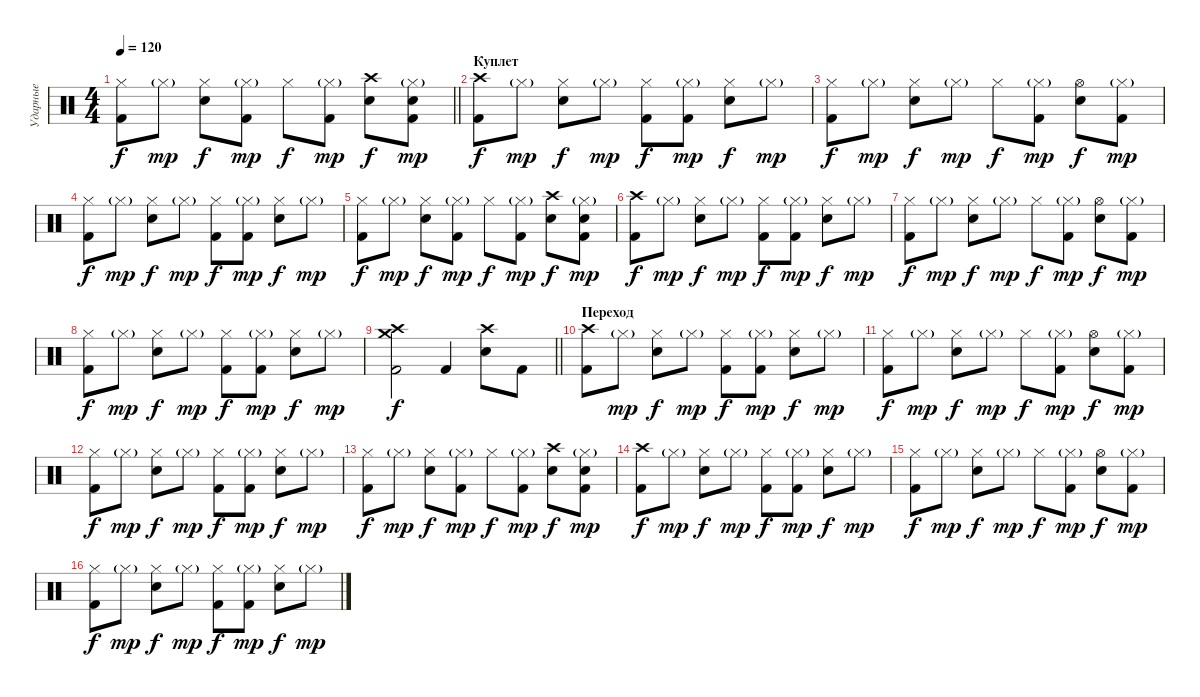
\track ("Ударные" "Ударные") {instrument percussion}
\staff {score}
\articulation defaults
\ts (4 4)
\tempo 120
\clef neutral
\barLineRight lightlight
\ks c
("Hi-Hat (closed)" "Kick (hit) 2").8{dy f} "Hi-Hat (closed)"{g}.8{dy mp} ("Hi-Hat (closed)" "Electric Snare (hit)").8{dy f} ("Hi-Hat (closed)"{g} "Kick (hit) 2").8{dy mp} "Hi-Hat (closed)".8{dy f} ("Hi-Hat (closed)"{g} "Kick (hit) 2").8{dy mp} ("Crash high (hit)" "Electric Snare (hit)").8{dy f} ("Hi-Hat (closed)"{g} "Kick (hit) 2" "Electric Snare (hit)").8{dy mp} |
\section ("" "Куплет")
("Crash high (hit)" "Kick (hit) 2").8{dy f} "Hi-Hat (closed)"{g}.8{dy mp} ("Hi-Hat (closed)" "Electric Snare (hit)").8{dy f} "Hi-Hat (closed)"{g}.8{dy mp} ("Hi-Hat (closed)" "Kick (hit) 2").8{dy f} ("Hi-Hat (closed)"{g} "Kick (hit) 2").8{dy mp} ("Hi-Hat (closed)" "Electric Snare (hit)").8{dy f} "Hi-Hat (closed)"{g}.8{dy mp} |
("Hi-Hat (closed)" "Kick (hit) 2").8{dy f} "Hi-Hat (closed)"{g}.8{dy mp} ("Hi-Hat (closed)" "Electric Snare (hit)").8{dy f} "Hi-Hat (closed)"{g}.8{dy mp} "Hi-Hat (closed)".8{dy f} ("Hi-Hat (closed)"{g} "Kick (hit) 2").8{dy mp} ("Hi-Hat (open)" "Electric Snare (hit)").8{dy f} ("Hi-Hat (closed)"{g} "Kick (hit) 2").8{dy mp} |
("Hi-Hat (closed)" "Kick (hit) 2").8{dy f} "Hi-Hat (closed)"{g}.8{dy mp} ("Hi-Hat (closed)" "Electric Snare (hit)").8{dy f} "Hi-Hat (closed)"{g}.8{dy mp} ("Hi-Hat (closed)" "Kick (hit) 2").8{dy f} ("Hi-Hat (closed)"{g} "Kick (hit) 2").8{dy mp} ("Hi-Hat (closed)" "Electric Snare (hit)").8{dy f} "Hi-Hat (closed)"{g}.8{dy mp} |
("Hi-Hat (closed)" "Kick (hit) 2").8{dy f} "Hi-Hat (closed)"{g}.8{dy mp} ("Hi-Hat (closed)" "Electric Snare (hit)").8{dy f} ("Hi-Hat (closed)"{g} "Kick (hit) 2").8{dy mp} "Hi-Hat (closed)".8{dy f} ("Hi-Hat (closed)"{g} "Kick (hit) 2").8{dy mp} ("Crash high (hit)" "Electric Snare (hit)").8{dy f} ("Hi-Hat (closed)"{g} "Kick (hit) 2" "Electric Snare (hit)").8{dy mp} |
("Crash high (hit)" "Kick (hit) 2").8{dy f} "Hi-Hat (closed)"{g}.8{dy mp} ("Hi-Hat (closed)" "Electric Snare (hit)").8{dy f} "Hi-Hat (closed)"{g}.8{dy mp} ("Hi-Hat (closed)" "Kick (hit) 2").8{dy f} ("Hi-Hat (closed)"{g} "Kick (hit) 2").8{dy mp} ("Hi-Hat (closed)" "Electric Snare (hit)").8{dy f} "Hi-Hat (closed)"{g}.8{dy mp} |
("Hi-Hat (closed)" "Kick (hit) 2").8{dy f} "Hi-Hat (closed)"{g}.8{dy mp} ("Hi-Hat (closed)" "Electric Snare (hit)").8{dy f} "Hi-Hat (closed)"{g}.8{dy mp} "Hi-Hat (closed)".8{dy f} ("Hi-Hat (closed)"{g} "Kick (hit) 2").8{dy mp} ("Hi-Hat (open)" "Electric Snare (hit)").8{dy f} ("Hi-Hat (closed)"{g} "Kick (hit) 2").8{dy mp} |
("Hi-Hat (closed)" "Kick (hit) 2").8{dy f} "Hi-Hat (closed)"{g}.8{dy mp} ("Hi-Hat (closed)" "Electric Snare (hit)").8{dy f} "Hi-Hat (closed)"{g}.8{dy mp} ("Hi-Hat (closed)" "Kick (hit) 2").8{dy f} ("Hi-Hat (closed)"{g} "Kick (hit) 2").8{dy mp} ("Hi-Hat (closed)" "Electric Snare (hit)").8{dy f} "Hi-Hat (closed)"{g}.8{dy mp} |
\barLineRight lightlight
("Kick (hit) 2" "Crash high (hit)" "Crash medium (hit)").2{dy f} "Kick (hit) 2".4 ("Electric Snare (hit)" "Crash high (hit)").8 "Kick (hit) 2".8 |
\section ("" "Переход")
("Crash high (hit)" "Kick (hit) 2").8 "Hi-Hat (closed)"{g}.8{dy mp} ("Hi-Hat (closed)" "Electric Snare (hit)").8{dy f} "Hi-Hat (closed)"{g}.8{dy mp} ("Hi-Hat (closed)" "Kick (hit) 2").8{dy f} ("Hi-Hat (closed)"{g} "Kick (hit) 2").8{dy mp} ("Hi-Hat (closed)" "Electric Snare (hit)").8{dy f} "Hi-Hat (closed)"{g}.8{dy mp} |
("Hi-Hat (closed)" "Kick (hit) 2").8{dy f} "Hi-Hat (closed)"{g}.8{dy mp} ("Hi-Hat (closed)" "Electric Snare (hit)").8{dy f} "Hi-Hat (closed)"{g}.8{dy mp} "Hi-Hat (closed)".8{dy f} ("Hi-Hat (closed)"{g} "Kick (hit) 2").8{dy mp} ("Hi-Hat (open)" "Electric Snare (hit)").8{dy f} ("Hi-Hat (closed)"{g} "Kick (hit) 2").8{dy mp} |
("Hi-Hat (closed)" "Kick (hit) 2").8{dy f} "Hi-Hat (closed)"{g}.8{dy mp} ("Hi-Hat (closed)" "Electric Snare (hit)").8{dy f} "Hi-Hat (closed)"{g}.8{dy mp} ("Hi-Hat (closed)" "Kick (hit) 2").8{dy f} ("Hi-Hat (closed)"{g} "Kick (hit) 2").8{dy mp} ("Hi-Hat (closed)" "Electric Snare (hit)").8{dy f} "Hi-Hat (closed)"{g}.8{dy mp} |
("Hi-Hat (closed)" "Kick (hit) 2").8{dy f} "Hi-Hat (closed)"{g}.8{dy mp} ("Hi-Hat (closed)" "Electric Snare (hit)").8{dy f} ("Hi-Hat (closed)"{g} "Kick (hit) 2").8{dy mp} "Hi-Hat (closed)".8{dy f} ("Hi-Hat (closed)"{g} "Kick (hit) 2").8{dy mp} ("Crash high (hit)" "Electric Snare (hit)").8{dy f} ("Hi-Hat (closed)"{g} "Kick (hit) 2" "Electric Snare (hit)").8{dy mp} |
("Crash high (hit)" "Kick (hit) 2").8{dy f} "Hi-Hat (closed)"{g}.8{dy mp} ("Hi-Hat (closed)" "Electric Snare (hit)").8{dy f} "Hi-Hat (closed)"{g}.8{dy mp} ("Hi-Hat (closed)" "Kick (hit) 2").8{dy f} ("Hi-Hat (closed)"{g} "Kick (hit) 2").8{dy mp} ("Hi-Hat (closed)" "Electric Snare (hit)").8{dy f} "Hi-Hat (closed)"{g}.8{dy mp} |
("Hi-Hat (closed)" "Kick (hit) 2").8{dy f} "Hi-Hat (closed)"{g}.8{dy mp} ("Hi-Hat (closed)" "Electric Snare (hit)").8{dy f} "Hi-Hat (closed)"{g}.8{dy mp} "Hi-Hat (closed)".8{dy f} ("Hi-Hat (closed)"{g} "Kick (hit) 2").8{dy mp} ("Hi-Hat (open)" "Electric Snare (hit)").8{dy f} ("Hi-Hat (closed)"{g} "Kick (hit) 2").8{dy mp} |
("Hi-Hat (closed)" "Kick (hit) 2").8{dy f} "Hi-Hat (closed)"{g}.8{dy mp} ("Hi-Hat (closed)" "Electric Snare (hit)").8{dy f} "Hi-Hat (closed)"{g}.8{dy mp} ("Hi-Hat (closed)" "Kick (hit) 2").8{dy f} ("Hi-Hat (closed)"{g} "Kick (hit) 2").8{dy mp} ("Hi-Hat (closed)" "Electric Snare (hit)").8{dy f} "Hi-Hat (closed)"{g}.8{dy mp}
